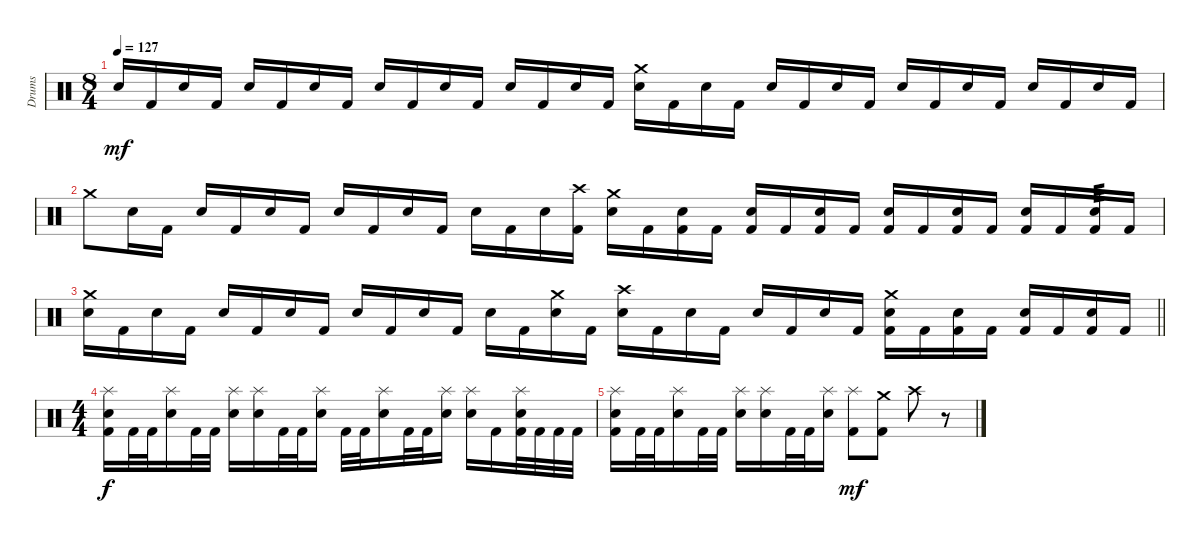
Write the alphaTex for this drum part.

\track ("Drums" "Drums") {instrument percussion}
\staff {score}
\articulation defaults
\ts (8 4)
\tempo 127
\clef neutral
\ks c "Electric Snare (hit)".16{dy mf} "Kick (hit) 2".16 "Electric Snare (hit)".16 "Kick (hit) 2".16 "Electric Snare (hit)".16 "Kick (hit) 2".16 "Electric Snare (hit)".16 "Kick (hit) 2".16 "Electric Snare (hit)".16 "Kick (hit) 2".16 "Electric Snare (hit)".16 "Kick (hit) 2".16 "Electric Snare (hit)".16 "Kick (hit) 2".16 "Electric Snare (hit)".16 "Kick (hit) 2".16
("Crash medium (hit)" "Electric Snare (hit)").16 "Kick (hit) 2".16 "Electric Snare (hit)".16 "Kick (hit) 2".16 "Electric Snare (hit)".16 "Kick (hit) 2".16 "Electric Snare (hit)".16 "Kick (hit) 2".16 "Electric Snare (hit)".16 "Kick (hit) 2".16 "Electric Snare (hit)".16 "Kick (hit) 2".16 "Electric Snare (hit)".16 "Kick (hit) 2".16 "Electric Snare (hit)".16 "Kick (hit) 2".16 |
"Crash medium (hit)".8 "Electric Snare (hit)".16 "Kick (hit) 2".16 "Electric Snare (hit)".16 "Kick (hit) 2".16 "Electric Snare (hit)".16 "Kick (hit) 2".16 "Electric Snare (hit)".16 "Kick (hit) 2".16 "Electric Snare (hit)".16 "Kick (hit) 2".16 "Electric Snare (hit)".16 "Kick (hit) 2".16 "Electric Snare (hit)".16 ("Crash high (hit)" "Kick (hit) 2").16 ("Crash medium (hit)" "Electric Snare (hit)").16 "Kick (hit) 2".16 ("Electric Snare (hit)" "Kick (hit) 2").16 "Kick (hit) 2".16 ("Electric Snare (hit)" "Kick (hit) 2").16 "Kick (hit) 2".16 ("Electric Snare (hit)" "Kick (hit) 2").16 "Kick (hit) 2".16 ("Electric Snare (hit)" "Kick (hit) 2").16 "Kick (hit) 2".16 ("Electric Snare (hit)" "Kick (hit) 2").16 "Kick (hit) 2".16 ("Electric Snare (hit)" "Kick (hit) 2").16 "Kick (hit) 2".16 ("Electric Snare (hit)" "Kick (hit) 2").16{tp 3} "Kick (hit) 2".16 |
\barLineRight lightlight
("Crash medium (hit)" "Electric Snare (hit)").16 "Kick (hit) 2".16 "Electric Snare (hit)".16 "Kick (hit) 2".16 "Electric Snare (hit)".16 "Kick (hit) 2".16 "Electric Snare (hit)".16 "Kick (hit) 2".16 "Electric Snare (hit)".16 "Kick (hit) 2".16 "Electric Snare (hit)".16 "Kick (hit) 2".16 "Electric Snare (hit)".16 "Kick (hit) 2".16 ("Crash medium (hit)" "Electric Snare (hit)").16 "Kick (hit) 2".16 ("Crash high (hit)" "Electric Snare (hit)").16 "Kick (hit) 2".16 "Electric Snare (hit)".16 "Kick (hit) 2".16 "Electric Snare (hit)".16 "Kick (hit) 2".16 "Electric Snare (hit)".16 "Kick (hit) 2".16 ("Crash medium (hit)" "Electric Snare (hit)" "Kick (hit) 2").16 "Kick (hit) 2".16 ("Electric Snare (hit)" "Kick (hit) 2").16 "Kick (hit) 2".16 ("Electric Snare (hit)" "Kick (hit) 2").16 "Kick (hit) 2".16 ("Electric Snare (hit)" "Kick (hit) 2").16 "Kick (hit) 2".16 |
\ts (4 4)
("Splash (hit)" "Electric Snare (hit)" "Kick (hit) 2").16{dy f} "Kick (hit) 2".32 "Kick (hit) 2".32 ("Splash (hit)" "Electric Snare (hit)").16 "Kick (hit) 2".32 "Kick (hit) 2".32 ("Splash (hit)" "Electric Snare (hit)").16 ("Splash (hit)" "Electric Snare (hit)").16 "Kick (hit) 2".32 "Kick (hit) 2".32 ("Splash (hit)" "Electric Snare (hit)").16 "Kick (hit) 2".32 "Kick (hit) 2".32 ("Splash (hit)" "Electric Snare (hit)").16 "Kick (hit) 2".32 "Kick (hit) 2".32 ("Splash (hit)" "Electric Snare (hit)").16 ("Splash (hit)" "Electric Snare (hit)").16 "Kick (hit) 2".16 ("Splash (hit)" "Electric Snare (hit)" "Kick (hit) 2").32 "Kick (hit) 2".32 "Kick (hit) 2".32 "Kick (hit) 2".32 |
("Splash (hit)" "Electric Snare (hit)" "Kick (hit) 2").16 "Kick (hit) 2".32 "Kick (hit) 2".32 ("Splash (hit)" "Electric Snare (hit)").16 "Kick (hit) 2".32 "Kick (hit) 2".32 ("Splash (hit)" "Electric Snare (hit)").16 ("Splash (hit)" "Electric Snare (hit)").16 "Kick (hit) 2".32 "Kick (hit) 2".32 ("Splash (hit)" "Electric Snare (hit)").16 ("Splash (hit)" "Kick (hit) 2").8{dy mf} ("Crash medium (hit)" "Kick (hit) 2").8 "Crash high (hit)".8 r.8
